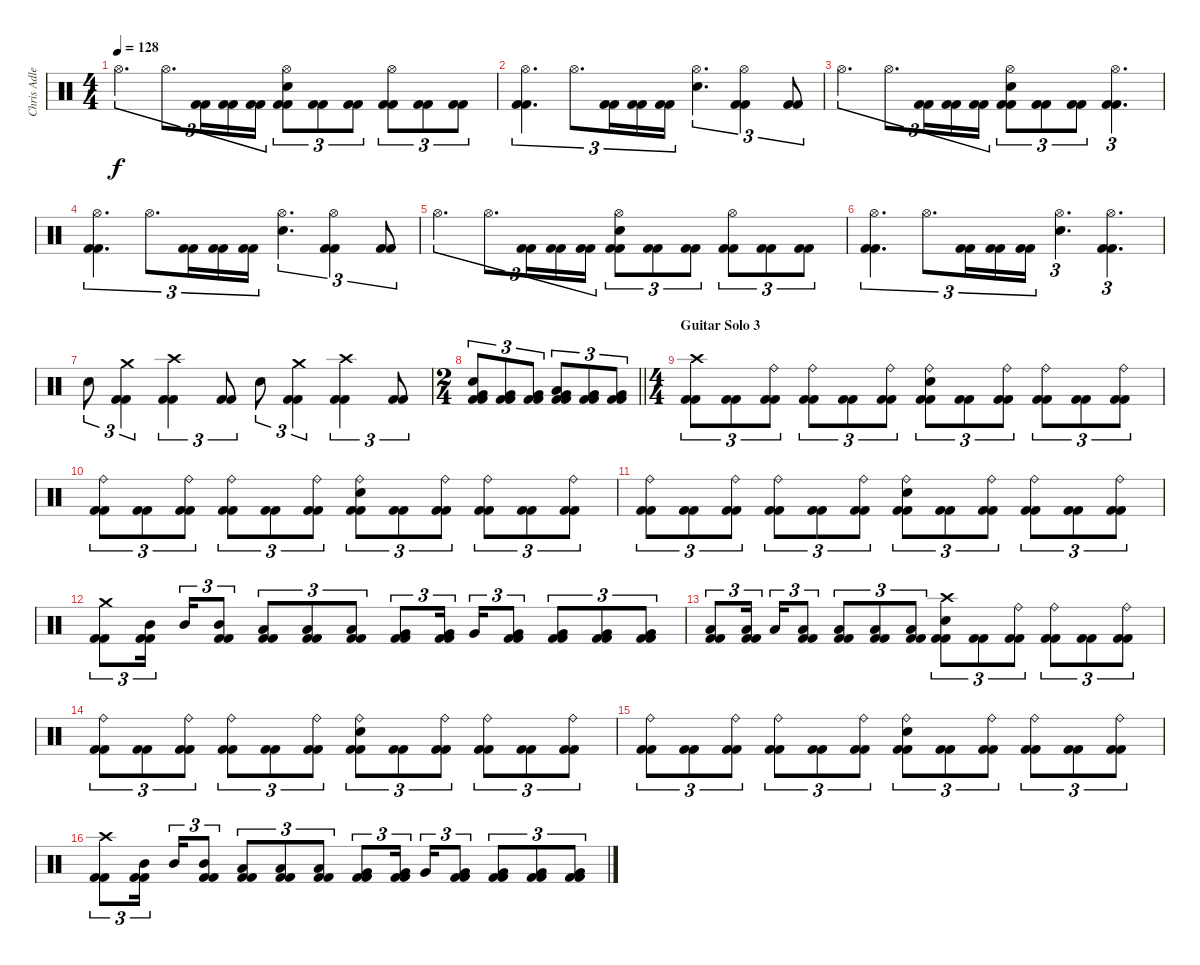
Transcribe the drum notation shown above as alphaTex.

\track ("Chris Adler" "Chris Adle") {instrument percussion}
\staff {score}
\articulation defaults
\ts (4 4)
\tempo 128
\clef neutral
\ks c "Hi-Hat (open)".4{d tu (3 2) dy f} "Hi-Hat (open)".8{d tu (3 2)}
("Kick (hit) 2" "Kick (hit) 2").16{tu (3 2)} ("Kick (hit) 2" "Kick (hit) 2").16{tu (3 2)} ("Kick (hit) 2" "Kick (hit) 2").16{tu (3 2)} ("Hi-Hat (open)" "Electric Snare (hit)" "Kick (hit) 2" "Kick (hit) 2").8{tu (3 2)} ("Kick (hit) 2" "Kick (hit) 2").8{tu (3 2)} ("Kick (hit) 2" "Kick (hit) 2").8{tu (3 2)} ("Hi-Hat (open)" "Kick (hit) 2" "Kick (hit) 2").8{tu (3 2)} ("Kick (hit) 2" "Kick (hit) 2").8{tu (3 2)} ("Kick (hit) 2" "Kick (hit) 2").8{tu (3 2)} |
("Hi-Hat (open)" "Kick (hit) 2" "Kick (hit) 2").4{d tu (3 2)} "Hi-Hat (open)".8{d tu (3 2)} ("Kick (hit) 2" "Kick (hit) 2").16{tu (3 2)} ("Kick (hit) 2" "Kick (hit) 2").16{tu (3 2)} ("Kick (hit) 2" "Kick (hit) 2").16{tu (3 2)} ("Hi-Hat (open)" "Electric Snare (hit)").4{d tu (3 2)} ("Hi-Hat (open)" "Kick (hit) 2" "Kick (hit) 2").4{tu (3 2)} ("Kick (hit) 2" "Kick (hit) 2").8{tu (3 2)} |
"Hi-Hat (open)".4{d tu (3 2)} "Hi-Hat (open)".8{d tu (3 2)} ("Kick (hit) 2" "Kick (hit) 2").16{tu (3 2)} ("Kick (hit) 2" "Kick (hit) 2").16{tu (3 2)} ("Kick (hit) 2" "Kick (hit) 2").16{tu (3 2)} ("Hi-Hat (open)" "Electric Snare (hit)" "Kick (hit) 2" "Kick (hit) 2").8{tu (3 2)} ("Kick (hit) 2" "Kick (hit) 2").8{tu (3 2)} ("Kick (hit) 2" "Kick (hit) 2").8{tu (3 2)} ("Hi-Hat (open)" "Kick (hit) 2" "Kick (hit) 2").4{d tu (3 2)} |
("Hi-Hat (open)" "Kick (hit) 2" "Kick (hit) 2").4{d tu (3 2)} "Hi-Hat (open)".8{d tu (3 2)} ("Kick (hit) 2" "Kick (hit) 2").16{tu (3 2)} ("Kick (hit) 2" "Kick (hit) 2").16{tu (3 2)} ("Kick (hit) 2" "Kick (hit) 2").16{tu (3 2)} ("Hi-Hat (open)" "Electric Snare (hit)").4{d tu (3 2)} ("Hi-Hat (open)" "Kick (hit) 2" "Kick (hit) 2").4{tu (3 2)} ("Kick (hit) 2" "Kick (hit) 2").8{tu (3 2)} |
"Hi-Hat (open)".4{d tu (3 2)} "Hi-Hat (open)".8{d tu (3 2)} ("Kick (hit) 2" "Kick (hit) 2").16{tu (3 2)} ("Kick (hit) 2" "Kick (hit) 2").16{tu (3 2)} ("Kick (hit) 2" "Kick (hit) 2").16{tu (3 2)} ("Hi-Hat (open)" "Electric Snare (hit)" "Kick (hit) 2" "Kick (hit) 2").8{tu (3 2)} ("Kick (hit) 2" "Kick (hit) 2").8{tu (3 2)} ("Kick (hit) 2" "Kick (hit) 2").8{tu (3 2)} ("Hi-Hat (open)" "Kick (hit) 2" "Kick (hit) 2").8{tu (3 2)} ("Kick (hit) 2" "Kick (hit) 2").8{tu (3 2)} ("Kick (hit) 2" "Kick (hit) 2").8{tu (3 2)} |
("Hi-Hat (open)" "Kick (hit) 2" "Kick (hit) 2").4{d tu (3 2)} "Hi-Hat (open)".8{d tu (3 2)} ("Kick (hit) 2" "Kick (hit) 2").16{tu (3 2)} ("Kick (hit) 2" "Kick (hit) 2").16{tu (3 2)} ("Kick (hit) 2" "Kick (hit) 2").16{tu (3 2)} ("Hi-Hat (open)" "Electric Snare (hit)").4{d tu (3 2)} ("Hi-Hat (open)" "Kick (hit) 2" "Kick (hit) 2").4{d tu (3 2)} |
"Electric Snare (hit)".8{tu (3 2)} ("Crash medium (hit)" "Kick (hit) 2" "Kick (hit) 2").4{tu (3 2)} ("Crash high (hit)" "Kick (hit) 2" "Kick (hit) 2").4{tu (3 2)} ("Kick (hit) 2" "Kick (hit) 2").8{tu (3 2)} "Electric Snare (hit)".8{tu (3 2)} ("Crash medium (hit)" "Kick (hit) 2" "Kick (hit) 2").4{tu (3 2)} ("Crash high (hit)" "Kick (hit) 2" "Kick (hit) 2").4{tu (3 2)} ("Kick (hit) 2" "Kick (hit) 2").8{tu (3 2)} |
\ts (2 4)
\barLineRight lightlight
("Very Low Tom (hit)" "Electric Snare (hit)" "Kick (hit) 2" "Kick (hit) 2").8{tu (3 2)} ("Very Low Tom (hit)" "Kick (hit) 2" "Kick (hit) 2").8{tu (3 2)} ("Very Low Tom (hit)" "Kick (hit) 2" "Kick (hit) 2").8{tu (3 2)} ("Low Tom (hit)" "Very Low Tom (hit)" "Kick (hit) 2" "Kick (hit) 2").8{tu (3 2)} ("Very Low Tom (hit)" "Kick (hit) 2" "Kick (hit) 2").8{tu (3 2)} ("Very Low Tom (hit)" "Kick (hit) 2" "Kick (hit) 2").8{tu (3 2)} |
\ts (4 4)
\section ("" "Guitar Solo 3")
("Crash high (hit)" "Kick (hit) 2" "Kick (hit) 2").8{tu (3 2)} ("Kick (hit) 2" "Kick (hit) 2").8{tu (3 2)} ("Ride (bell)" "Kick (hit) 2" "Kick (hit) 2").8{tu (3 2)} ("Ride (bell)" "Kick (hit) 2" "Kick (hit) 2").8{tu (3 2)} ("Kick (hit) 2" "Kick (hit) 2").8{tu (3 2)} ("Ride (bell)" "Kick (hit) 2" "Kick (hit) 2").8{tu (3 2)} ("Ride (bell)" "Electric Snare (hit)" "Kick (hit) 2" "Kick (hit) 2").8{tu (3 2)} ("Kick (hit) 2" "Kick (hit) 2").8{tu (3 2)} ("Ride (bell)" "Kick (hit) 2" "Kick (hit) 2").8{tu (3 2)} ("Ride (bell)" "Kick (hit) 2" "Kick (hit) 2").8{tu (3 2)} ("Kick (hit) 2" "Kick (hit) 2").8{tu (3 2)} ("Ride (bell)" "Kick (hit) 2" "Kick (hit) 2").8{tu (3 2)} |
("Ride (bell)" "Kick (hit) 2" "Kick (hit) 2").8{tu (3 2)} ("Kick (hit) 2" "Kick (hit) 2").8{tu (3 2)} ("Ride (bell)" "Kick (hit) 2" "Kick (hit) 2").8{tu (3 2)} ("Ride (bell)" "Kick (hit) 2" "Kick (hit) 2").8{tu (3 2)} ("Kick (hit) 2" "Kick (hit) 2").8{tu (3 2)} ("Ride (bell)" "Kick (hit) 2" "Kick (hit) 2").8{tu (3 2)} ("Ride (bell)" "Electric Snare (hit)" "Kick (hit) 2" "Kick (hit) 2").8{tu (3 2)} ("Kick (hit) 2" "Kick (hit) 2").8{tu (3 2)} ("Ride (bell)" "Kick (hit) 2" "Kick (hit) 2").8{tu (3 2)} ("Ride (bell)" "Kick (hit) 2" "Kick (hit) 2").8{tu (3 2)} ("Kick (hit) 2" "Kick (hit) 2").8{tu (3 2)} ("Ride (bell)" "Kick (hit) 2" "Kick (hit) 2").8{tu (3 2)} |
("Ride (bell)" "Kick (hit) 2" "Kick (hit) 2").8{tu (3 2)} ("Kick (hit) 2" "Kick (hit) 2").8{tu (3 2)} ("Ride (bell)" "Kick (hit) 2" "Kick (hit) 2").8{tu (3 2)} ("Ride (bell)" "Kick (hit) 2" "Kick (hit) 2").8{tu (3 2)} ("Kick (hit) 2" "Kick (hit) 2").8{tu (3 2)} ("Ride (bell)" "Kick (hit) 2" "Kick (hit) 2").8{tu (3 2)} ("Ride (bell)" "Electric Snare (hit)" "Kick (hit) 2" "Kick (hit) 2").8{tu (3 2)} ("Kick (hit) 2" "Kick (hit) 2").8{tu (3 2)} ("Ride (bell)" "Kick (hit) 2" "Kick (hit) 2").8{tu (3 2)} ("Ride (bell)" "Kick (hit) 2" "Kick (hit) 2").8{tu (3 2)} ("Kick (hit) 2" "Kick (hit) 2").8{tu (3 2)} ("Ride (bell)" "Kick (hit) 2" "Kick (hit) 2").8{tu (3 2)} |
("Crash medium (hit)" "Kick (hit) 2" "Kick (hit) 2").8{tu (3 2)} ("Mid Tom (hit)" "Kick (hit) 2" "Kick (hit) 2").16{tu (3 2) beam splitsecondary} "Mid Tom (hit)".16{tu (3 2)} ("Mid Tom (hit)" "Kick (hit) 2" "Kick (hit) 2").8{tu (3 2)} ("Low Tom (hit)" "Kick (hit) 2" "Kick (hit) 2").8{tu (3 2)} ("Low Tom (hit)" "Kick (hit) 2" "Kick (hit) 2").8{tu (3 2)} ("Low Tom (hit)" "Kick (hit) 2" "Kick (hit) 2").8{tu (3 2)} ("Very Low Tom (hit)" "Kick (hit) 2" "Kick (hit) 2").8{tu (3 2)} ("Very Low Tom (hit)" "Kick (hit) 2" "Kick (hit) 2").16{tu (3 2) beam splitsecondary} "Very Low Tom (hit)".16{tu (3 2)} ("Very Low Tom (hit)" "Kick (hit) 2" "Kick (hit) 2").8{tu (3 2)} ("Very Low Tom (hit)" "Kick (hit) 2" "Kick (hit) 2").8{tu (3 2)} ("Very Low Tom (hit)" "Kick (hit) 2" "Kick (hit) 2").8{tu (3 2)} ("Very Low Tom (hit)" "Kick (hit) 2" "Kick (hit) 2").8{tu (3 2)} |
("Low Floor Tom (hit)" "Kick (hit) 2" "Kick (hit) 2").8{tu (3 2)} ("Low Floor Tom (hit)" "Kick (hit) 2" "Kick (hit) 2").16{tu (3 2) beam splitsecondary} "Low Floor Tom (hit)".16{tu (3 2)} ("Low Floor Tom (hit)" "Kick (hit) 2" "Kick (hit) 2").8{tu (3 2)} ("Low Floor Tom (hit)" "Kick (hit) 2" "Kick (hit) 2").8{tu (3 2)} ("Low Floor Tom (hit)" "Kick (hit) 2" "Kick (hit) 2").8{tu (3 2)} ("Low Floor Tom (hit)" "Kick (hit) 2" "Kick (hit) 2").8{tu (3 2)} ("Crash high (hit)" "Electric Snare (hit)" "Kick (hit) 2" "Kick (hit) 2").8{tu (3 2)} ("Kick (hit) 2" "Kick (hit) 2").8{tu (3 2)} ("Ride (bell)" "Kick (hit) 2" "Kick (hit) 2").8{tu (3 2)} ("Ride (bell)" "Kick (hit) 2" "Kick (hit) 2").8{tu (3 2)} ("Kick (hit) 2" "Kick (hit) 2").8{tu (3 2)} ("Ride (bell)" "Kick (hit) 2" "Kick (hit) 2").8{tu (3 2)} |
("Ride (bell)" "Kick (hit) 2" "Kick (hit) 2").8{tu (3 2)} ("Kick (hit) 2" "Kick (hit) 2").8{tu (3 2)} ("Ride (bell)" "Kick (hit) 2" "Kick (hit) 2").8{tu (3 2)} ("Ride (bell)" "Kick (hit) 2" "Kick (hit) 2").8{tu (3 2)} ("Kick (hit) 2" "Kick (hit) 2").8{tu (3 2)} ("Ride (bell)" "Kick (hit) 2" "Kick (hit) 2").8{tu (3 2)} ("Ride (bell)" "Electric Snare (hit)" "Kick (hit) 2" "Kick (hit) 2").8{tu (3 2)} ("Kick (hit) 2" "Kick (hit) 2").8{tu (3 2)} ("Ride (bell)" "Kick (hit) 2" "Kick (hit) 2").8{tu (3 2)} ("Ride (bell)" "Kick (hit) 2" "Kick (hit) 2").8{tu (3 2)} ("Kick (hit) 2" "Kick (hit) 2").8{tu (3 2)} ("Ride (bell)" "Kick (hit) 2" "Kick (hit) 2").8{tu (3 2)} |
("Ride (bell)" "Kick (hit) 2" "Kick (hit) 2").8{tu (3 2)} ("Kick (hit) 2" "Kick (hit) 2").8{tu (3 2)} ("Ride (bell)" "Kick (hit) 2" "Kick (hit) 2").8{tu (3 2)} ("Ride (bell)" "Kick (hit) 2" "Kick (hit) 2").8{tu (3 2)} ("Kick (hit) 2" "Kick (hit) 2").8{tu (3 2)} ("Ride (bell)" "Kick (hit) 2" "Kick (hit) 2").8{tu (3 2)} ("Ride (bell)" "Electric Snare (hit)" "Kick (hit) 2" "Kick (hit) 2").8{tu (3 2)} ("Kick (hit) 2" "Kick (hit) 2").8{tu (3 2)} ("Ride (bell)" "Kick (hit) 2" "Kick (hit) 2").8{tu (3 2)} ("Ride (bell)" "Kick (hit) 2" "Kick (hit) 2").8{tu (3 2)} ("Kick (hit) 2" "Kick (hit) 2").8{tu (3 2)} ("Ride (bell)" "Kick (hit) 2" "Kick (hit) 2").8{tu (3 2)} |
("Crash high (hit)" "Kick (hit) 2" "Kick (hit) 2").8{tu (3 2)} ("Mid Tom (hit)" "Kick (hit) 2" "Kick (hit) 2").16{tu (3 2) beam splitsecondary} "Mid Tom (hit)".16{tu (3 2)} ("Mid Tom (hit)" "Kick (hit) 2" "Kick (hit) 2").8{tu (3 2)} ("Low Tom (hit)" "Kick (hit) 2" "Kick (hit) 2").8{tu (3 2)} ("Low Tom (hit)" "Kick (hit) 2" "Kick (hit) 2").8{tu (3 2)} ("Low Tom (hit)" "Kick (hit) 2" "Kick (hit) 2").8{tu (3 2)} ("Very Low Tom (hit)" "Kick (hit) 2" "Kick (hit) 2").8{tu (3 2)} ("Very Low Tom (hit)" "Kick (hit) 2" "Kick (hit) 2").16{tu (3 2) beam splitsecondary} "Very Low Tom (hit)".16{tu (3 2)} ("Very Low Tom (hit)" "Kick (hit) 2" "Kick (hit) 2").8{tu (3 2)} ("Very Low Tom (hit)" "Kick (hit) 2" "Kick (hit) 2").8{tu (3 2)} ("Very Low Tom (hit)" "Kick (hit) 2" "Kick (hit) 2").8{tu (3 2)} ("Very Low Tom (hit)" "Kick (hit) 2" "Kick (hit) 2").8{tu (3 2)}
